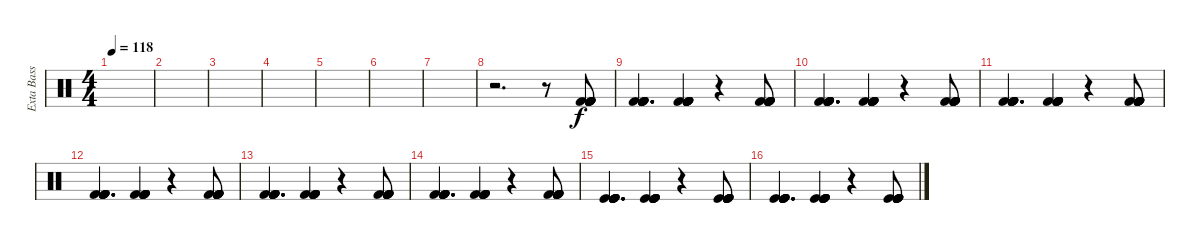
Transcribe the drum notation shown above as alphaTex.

\track ("Exta Bass Boost" "Exta Bass ") {instrument percussion}
\staff {score}
\articulation defaults
\ts (4 4)
\tempo 118
\clef neutral
\ks c
|
|
|
|
|
|
|
r.2{d} r.8 ("Kick (hit) 2" "Kick (hit) 2" "Kick (hit) 2" "Kick (hit) 2" "Kick (hit) 2" "Kick (hit) 2").8 |
("Kick (hit) 2" "Kick (hit) 2" "Kick (hit) 2" "Kick (hit) 2" "Kick (hit) 2" "Kick (hit) 2").4{d} ("Kick (hit) 2" "Kick (hit) 2" "Kick (hit) 2" "Kick (hit) 2" "Kick (hit) 2" "Kick (hit) 2").4 r.4 ("Kick (hit) 2" "Kick (hit) 2" "Kick (hit) 2" "Kick (hit) 2" "Kick (hit) 2" "Kick (hit) 2").8 |
("Kick (hit) 2" "Kick (hit) 2" "Kick (hit) 2" "Kick (hit) 2" "Kick (hit) 2" "Kick (hit) 2").4{d} ("Kick (hit) 2" "Kick (hit) 2" "Kick (hit) 2" "Kick (hit) 2" "Kick (hit) 2" "Kick (hit) 2").4 r.4 ("Kick (hit) 2" "Kick (hit) 2" "Kick (hit) 2" "Kick (hit) 2" "Kick (hit) 2" "Kick (hit) 2").8 |
("Kick (hit) 2" "Kick (hit) 2" "Kick (hit) 2" "Kick (hit) 2" "Kick (hit) 2" "Kick (hit) 2").4{d} ("Kick (hit) 2" "Kick (hit) 2" "Kick (hit) 2" "Kick (hit) 2" "Kick (hit) 2" "Kick (hit) 2").4 r.4 ("Kick (hit) 2" "Kick (hit) 2" "Kick (hit) 2" "Kick (hit) 2" "Kick (hit) 2" "Kick (hit) 2").8 |
("Kick (hit) 2" "Kick (hit) 2" "Kick (hit) 2" "Kick (hit) 2" "Kick (hit) 2" "Kick (hit) 2").4{d} ("Kick (hit) 2" "Kick (hit) 2" "Kick (hit) 2" "Kick (hit) 2" "Kick (hit) 2" "Kick (hit) 2").4 r.4 ("Kick (hit) 2" "Kick (hit) 2" "Kick (hit) 2" "Kick (hit) 2" "Kick (hit) 2" "Kick (hit) 2").8 |
("Kick (hit) 2" "Kick (hit) 2" "Kick (hit) 2" "Kick (hit) 2" "Kick (hit) 2" "Kick (hit) 2").4{d} ("Kick (hit) 2" "Kick (hit) 2" "Kick (hit) 2" "Kick (hit) 2" "Kick (hit) 2" "Kick (hit) 2").4 r.4 ("Kick (hit) 2" "Kick (hit) 2" "Kick (hit) 2" "Kick (hit) 2" "Kick (hit) 2" "Kick (hit) 2").8 |
("Kick (hit) 2" "Kick (hit) 2" "Kick (hit) 2" "Kick (hit) 2" "Kick (hit) 2" "Kick (hit) 2").4{d} ("Kick (hit) 2" "Kick (hit) 2" "Kick (hit) 2" "Kick (hit) 2" "Kick (hit) 2" "Kick (hit) 2").4 r.4 ("Kick (hit) 2" "Kick (hit) 2" "Kick (hit) 2" "Kick (hit) 2" "Kick (hit) 2" "Kick (hit) 2").8 |
("Kick (hit)" "Kick (hit)" "Kick (hit)" "Kick (hit)" "Kick (hit)" "Kick (hit)").4{d} ("Kick (hit)" "Kick (hit)" "Kick (hit)" "Kick (hit)" "Kick (hit)" "Kick (hit)").4 r.4 ("Kick (hit)" "Kick (hit)" "Kick (hit)" "Kick (hit)" "Kick (hit)" "Kick (hit)").8 |
("Kick (hit)" "Kick (hit)" "Kick (hit)" "Kick (hit)" "Kick (hit)" "Kick (hit)").4{d} ("Kick (hit)" "Kick (hit)" "Kick (hit)" "Kick (hit)" "Kick (hit)" "Kick (hit)").4 r.4 ("Kick (hit)" "Kick (hit)" "Kick (hit)" "Kick (hit)" "Kick (hit)" "Kick (hit)").8
